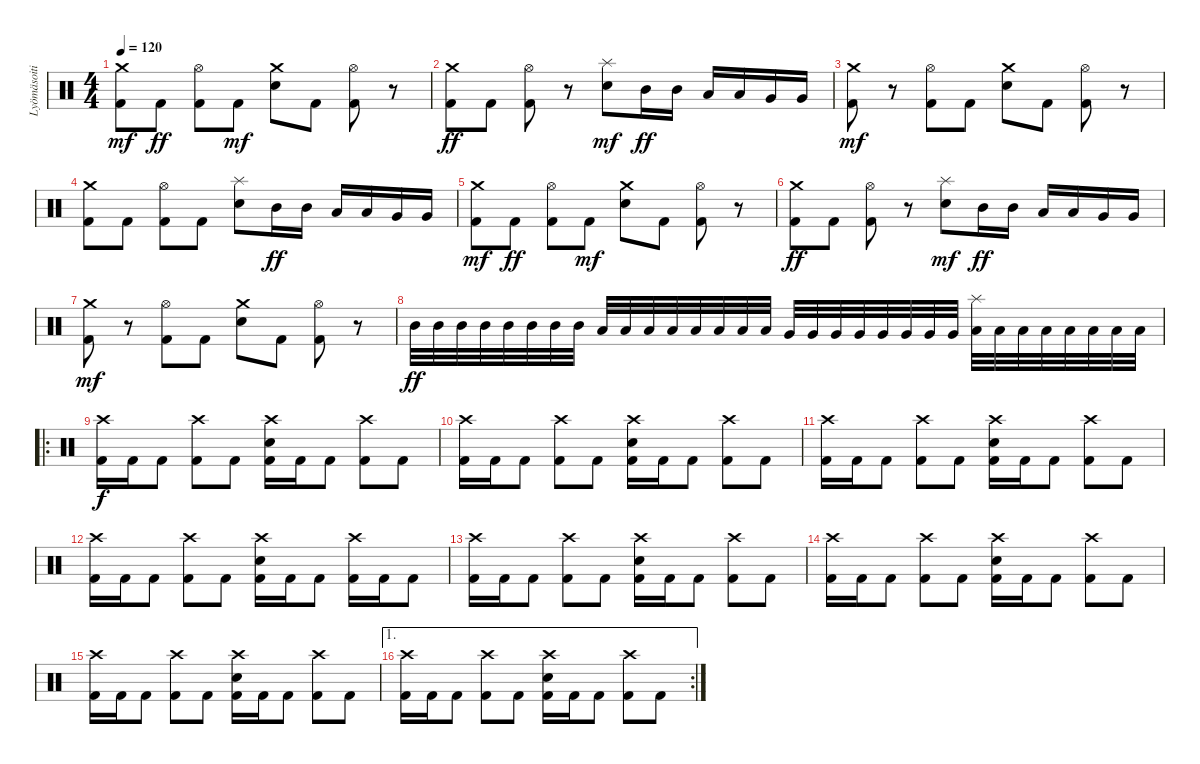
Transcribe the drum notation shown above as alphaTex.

\track ("Lyömäsoitin" "Lyömäsoiti") {instrument percussion}
\staff {score}
\articulation defaults
\ts (4 4)
\tempo 120
\clef neutral
\ks c
("Crash medium (hit)" "Kick (hit) 2").8{dy mf} "Kick (hit) 2".8{dy ff} ("Hi-Hat (open)" "Kick (hit) 2").8 "Kick (hit) 2".8{dy mf} ("Crash medium (hit)" "Snare (hit) 2").8 "Kick (hit) 2".8 ("Hi-Hat (open)" "Kick (hit) 2").8 r.8 |
("Crash medium (hit)" "Kick (hit) 2").8{dy ff} "Kick (hit) 2".8 ("Hi-Hat (open)" "Kick (hit) 2").8 r.8 ("Splash (hit)" "Snare (hit) 2").8{dy mf} "Mid Tom (hit)".16{dy ff} "Mid Tom (hit)".16 "Low Tom (hit)".16 "Low Tom (hit)".16 "Very Low Tom (hit)".16 "Very Low Tom (hit)".16 |
("Crash medium (hit)" "Kick (hit) 2").8{dy mf} r.8 ("Hi-Hat (open)" "Kick (hit) 2").8 "Kick (hit) 2".8 ("Crash medium (hit)" "Snare (hit) 2").8 "Kick (hit) 2".8 ("Hi-Hat (open)" "Kick (hit) 2").8 r.8 |
("Crash medium (hit)" "Kick (hit) 2").8 "Kick (hit) 2".8 ("Hi-Hat (open)" "Kick (hit) 2").8 "Kick (hit) 2".8 ("Splash (hit)" "Snare (hit) 2").8 "Mid Tom (hit)".16{dy ff} "Mid Tom (hit)".16 "Low Tom (hit)".16 "Low Tom (hit)".16 "Very Low Tom (hit)".16 "Very Low Tom (hit)".16 |
("Crash medium (hit)" "Kick (hit) 2").8{dy mf} "Kick (hit) 2".8{dy ff} ("Hi-Hat (open)" "Kick (hit) 2").8 "Kick (hit) 2".8{dy mf} ("Crash medium (hit)" "Snare (hit) 2").8 "Kick (hit) 2".8 ("Hi-Hat (open)" "Kick (hit) 2").8 r.8 |
("Crash medium (hit)" "Kick (hit) 2").8{dy ff} "Kick (hit) 2".8 ("Hi-Hat (open)" "Kick (hit) 2").8 r.8 ("Splash (hit)" "Snare (hit) 2").8{dy mf} "Mid Tom (hit)".16{dy ff} "Mid Tom (hit)".16 "Low Tom (hit)".16 "Low Tom (hit)".16 "Very Low Tom (hit)".16 "Very Low Tom (hit)".16 |
("Crash medium (hit)" "Kick (hit) 2").8{dy mf} r.8 ("Hi-Hat (open)" "Kick (hit) 2").8 "Kick (hit) 2".8 ("Crash medium (hit)" "Snare (hit) 2").8 "Kick (hit) 2".8 ("Hi-Hat (open)" "Kick (hit) 2").8 r.8 |
"Mid Tom (hit)".32{dy ff} "Mid Tom (hit)".32 "Mid Tom (hit)".32 "Mid Tom (hit)".32 "Mid Tom (hit)".32 "Mid Tom (hit)".32 "Mid Tom (hit)".32 "Mid Tom (hit)".32 "Low Tom (hit)".32 "Low Tom (hit)".32 "Low Tom (hit)".32 "Low Tom (hit)".32 "Low Tom (hit)".32 "Low Tom (hit)".32 "Low Tom (hit)".32 "Low Tom (hit)".32 "Very Low Tom (hit)".32 "Very Low Tom (hit)".32 "Very Low Tom (hit)".32 "Very Low Tom (hit)".32 "Very Low Tom (hit)".32 "Very Low Tom (hit)".32 "Very Low Tom (hit)".32 "Very Low Tom (hit)".32 ("Splash (hit)" "Low Floor Tom (hit)").32 "Low Floor Tom (hit)".32 "Low Floor Tom (hit)".32 "Low Floor Tom (hit)".32 "Low Floor Tom (hit)".32 "Low Floor Tom (hit)".32 "Low Floor Tom (hit)".32 "Low Floor Tom (hit)".32 |
\ro
("Crash high (hit)" "Kick (hit) 2").16{dy f} "Kick (hit) 2".16 "Kick (hit) 2".8 ("Crash high (hit)" "Kick (hit) 2").8 "Kick (hit) 2".8 ("Crash high (hit)" "Snare (hit) 2" "Kick (hit) 2").16 "Kick (hit) 2".16 "Kick (hit) 2".8 ("Crash high (hit)" "Kick (hit) 2").8 "Kick (hit) 2".8 |
("Crash high (hit)" "Kick (hit) 2").16 "Kick (hit) 2".16 "Kick (hit) 2".8 ("Crash high (hit)" "Kick (hit) 2").8 "Kick (hit) 2".8 ("Crash high (hit)" "Snare (hit) 2" "Kick (hit) 2").16 "Kick (hit) 2".16 "Kick (hit) 2".8 ("Crash high (hit)" "Kick (hit) 2").8 "Kick (hit) 2".8 |
("Crash high (hit)" "Kick (hit) 2").16 "Kick (hit) 2".16 "Kick (hit) 2".8 ("Crash high (hit)" "Kick (hit) 2").8 "Kick (hit) 2".8 ("Crash high (hit)" "Snare (hit) 2" "Kick (hit) 2").16 "Kick (hit) 2".16 "Kick (hit) 2".8 ("Crash high (hit)" "Kick (hit) 2").8 "Kick (hit) 2".8 |
("Crash high (hit)" "Kick (hit) 2").16 "Kick (hit) 2".16 "Kick (hit) 2".8 ("Crash high (hit)" "Kick (hit) 2").8 "Kick (hit) 2".8 ("Crash high (hit)" "Snare (hit) 2" "Kick (hit) 2").16 "Kick (hit) 2".16 "Kick (hit) 2".8 ("Crash high (hit)" "Kick (hit) 2").16 "Kick (hit) 2".16 "Kick (hit) 2".8 |
("Crash high (hit)" "Kick (hit) 2").16 "Kick (hit) 2".16 "Kick (hit) 2".8 ("Crash high (hit)" "Kick (hit) 2").8 "Kick (hit) 2".8 ("Crash high (hit)" "Snare (hit) 2" "Kick (hit) 2").16 "Kick (hit) 2".16 "Kick (hit) 2".8 ("Crash high (hit)" "Kick (hit) 2").8 "Kick (hit) 2".8 |
("Crash high (hit)" "Kick (hit) 2").16 "Kick (hit) 2".16 "Kick (hit) 2".8 ("Crash high (hit)" "Kick (hit) 2").8 "Kick (hit) 2".8 ("Crash high (hit)" "Snare (hit) 2" "Kick (hit) 2").16 "Kick (hit) 2".16 "Kick (hit) 2".8 ("Crash high (hit)" "Kick (hit) 2").8 "Kick (hit) 2".8 |
("Crash high (hit)" "Kick (hit) 2").16 "Kick (hit) 2".16 "Kick (hit) 2".8 ("Crash high (hit)" "Kick (hit) 2").8 "Kick (hit) 2".8 ("Crash high (hit)" "Snare (hit) 2" "Kick (hit) 2").16 "Kick (hit) 2".16 "Kick (hit) 2".8 ("Crash high (hit)" "Kick (hit) 2").8 "Kick (hit) 2".8 |
\ae 1
\rc 2
("Crash high (hit)" "Kick (hit) 2").16 "Kick (hit) 2".16 "Kick (hit) 2".8 ("Crash high (hit)" "Kick (hit) 2").8 "Kick (hit) 2".8 ("Crash high (hit)" "Snare (hit) 2" "Kick (hit) 2").16 "Kick (hit) 2".16 "Kick (hit) 2".8 ("Crash high (hit)" "Kick (hit) 2").8 "Kick (hit) 2".8
